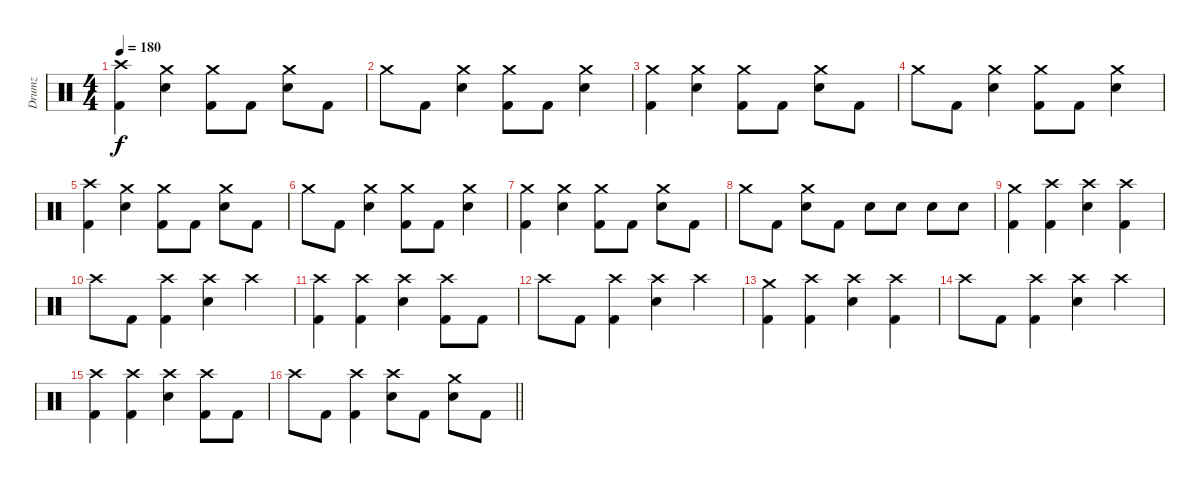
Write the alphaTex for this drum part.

\track ("Drumz" "Drumz") {instrument percussion}
\staff {score}
\articulation defaults
\ts (4 4)
\section ("" "")
\tempo 180
\clef neutral
\ks c
("Crash high (hit)" "Kick (hit) 2").4{dy f} ("Crash medium (hit)" "Electric Snare (hit)").4 ("Crash medium (hit)" "Kick (hit) 2").8 "Kick (hit) 2".8 ("Crash medium (hit)" "Electric Snare (hit)").8 "Kick (hit) 2".8 |
"Crash medium (hit)".8 "Kick (hit) 2".8 ("Crash medium (hit)" "Electric Snare (hit)").4 ("Crash medium (hit)" "Kick (hit) 2").8 "Kick (hit) 2".8 ("Crash medium (hit)" "Electric Snare (hit)").4 |
("Crash medium (hit)" "Kick (hit) 2").4 ("Crash medium (hit)" "Electric Snare (hit)").4 ("Crash medium (hit)" "Kick (hit) 2").8 "Kick (hit) 2".8 ("Crash medium (hit)" "Electric Snare (hit)").8 "Kick (hit) 2".8 |
"Crash medium (hit)".8 "Kick (hit) 2".8 ("Crash medium (hit)" "Electric Snare (hit)").4 ("Crash medium (hit)" "Kick (hit) 2").8 "Kick (hit) 2".8 ("Crash medium (hit)" "Electric Snare (hit)").4 |
("Crash high (hit)" "Kick (hit) 2").4 ("Crash medium (hit)" "Electric Snare (hit)").4 ("Crash medium (hit)" "Kick (hit) 2").8 "Kick (hit) 2".8 ("Crash medium (hit)" "Electric Snare (hit)").8 "Kick (hit) 2".8 |
"Crash medium (hit)".8 "Kick (hit) 2".8 ("Crash medium (hit)" "Electric Snare (hit)").4 ("Crash medium (hit)" "Kick (hit) 2").8 "Kick (hit) 2".8 ("Crash medium (hit)" "Electric Snare (hit)").4 |
("Crash medium (hit)" "Kick (hit) 2").4 ("Crash medium (hit)" "Electric Snare (hit)").4 ("Crash medium (hit)" "Kick (hit) 2").8 "Kick (hit) 2".8 ("Crash medium (hit)" "Electric Snare (hit)").8 "Kick (hit) 2".8 |
"Crash medium (hit)".8 "Kick (hit) 2".8 ("Crash medium (hit)" "Electric Snare (hit)").8 "Kick (hit) 2".8 "Electric Snare (hit)".8 "Electric Snare (hit)".8 "Electric Snare (hit)".8 "Electric Snare (hit)".8 |
("Crash medium (hit)" "Kick (hit) 2").4 ("Crash high (hit)" "Kick (hit) 2").4 ("Crash high (hit)" "Electric Snare (hit)").4 ("Crash high (hit)" "Kick (hit) 2").4 |
"Crash high (hit)".8 "Kick (hit) 2".8 ("Crash high (hit)" "Kick (hit) 2").4 ("Crash high (hit)" "Electric Snare (hit)").4 "Crash high (hit)".4 |
("Crash high (hit)" "Kick (hit) 2").4 ("Crash high (hit)" "Kick (hit) 2").4 ("Crash high (hit)" "Electric Snare (hit)").4 ("Crash high (hit)" "Kick (hit) 2").8 "Kick (hit) 2".8 |
"Crash high (hit)".8 "Kick (hit) 2".8 ("Crash high (hit)" "Kick (hit) 2").4 ("Crash high (hit)" "Electric Snare (hit)").4 "Crash high (hit)".4 |
("Crash medium (hit)" "Kick (hit) 2").4 ("Crash high (hit)" "Kick (hit) 2").4 ("Crash high (hit)" "Electric Snare (hit)").4 ("Crash high (hit)" "Kick (hit) 2").4 |
"Crash high (hit)".8 "Kick (hit) 2".8 ("Crash high (hit)" "Kick (hit) 2").4 ("Crash high (hit)" "Electric Snare (hit)").4 "Crash high (hit)".4 |
("Crash high (hit)" "Kick (hit) 2").4 ("Crash high (hit)" "Kick (hit) 2").4 ("Crash high (hit)" "Electric Snare (hit)").4 ("Crash high (hit)" "Kick (hit) 2").8 "Kick (hit) 2".8 |
\barLineRight lightlight "Crash high (hit)".8 "Kick (hit) 2".8
("Crash high (hit)" "Kick (hit) 2").4 ("Crash high (hit)" "Electric Snare (hit)").8 "Kick (hit) 2".8 ("Crash medium (hit)" "Electric Snare (hit)").8 "Kick (hit) 2".8
